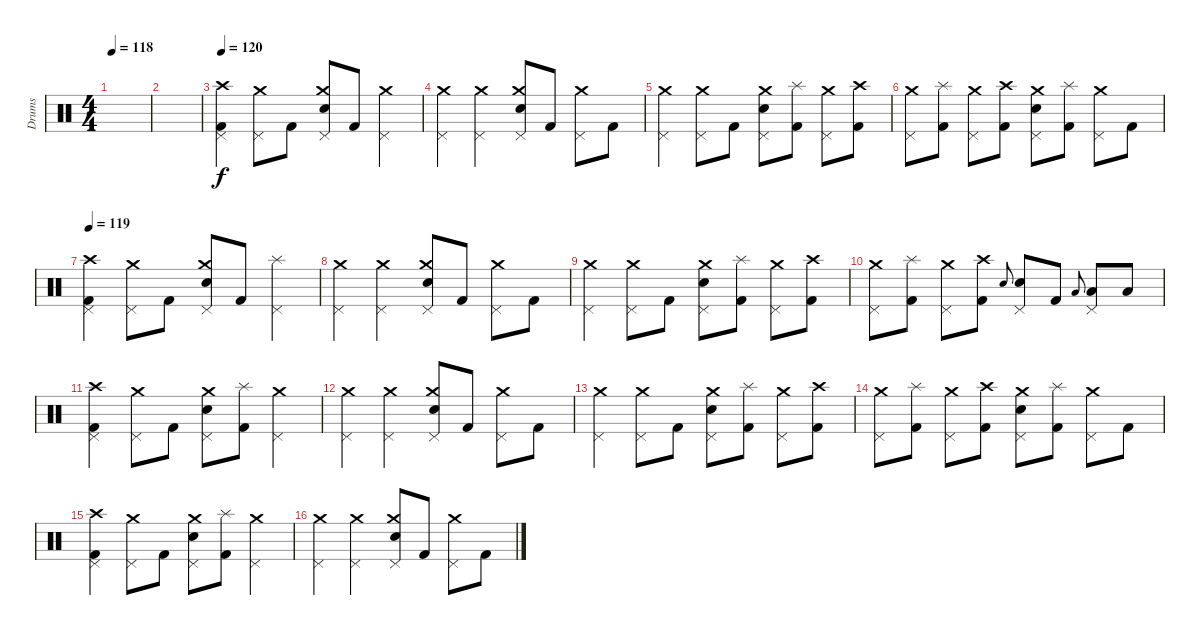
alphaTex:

\track ("Drums" "Drums") {instrument percussion}
\staff {score}
\articulation defaults
\ts (4 4)
\tempo 118
\clef neutral
\ks c
|
|
\section ("" "")
\tempo 120
("Crash high (hit)" "Pedal Hi-Hat (hit)" "Kick (hit) 2").4 ("Crash medium (hit)" "Pedal Hi-Hat (hit)").8 "Kick (hit) 2".8 ("Crash medium (hit)" "Pedal Hi-Hat (hit)" "Electric Snare (hit)").8 "Kick (hit) 2".8 ("Crash medium (hit)" "Pedal Hi-Hat (hit)").4 |
("Crash medium (hit)" "Pedal Hi-Hat (hit)").4 ("Crash medium (hit)" "Pedal Hi-Hat (hit)").4 ("Crash medium (hit)" "Pedal Hi-Hat (hit)" "Electric Snare (hit)").8 "Kick (hit) 2".8 ("Crash medium (hit)" "Pedal Hi-Hat (hit)").8 "Kick (hit) 2".8 |
("Crash medium (hit)" "Pedal Hi-Hat (hit)").4 ("Crash medium (hit)" "Pedal Hi-Hat (hit)").8 "Kick (hit) 2".8 ("Crash medium (hit)" "Pedal Hi-Hat (hit)" "Electric Snare (hit)").8 ("Splash (hit)" "Kick (hit) 2").8 ("Crash medium (hit)" "Pedal Hi-Hat (hit)").8 ("Crash high (hit)" "Kick (hit) 2").8 |
("Crash medium (hit)" "Pedal Hi-Hat (hit)").8 ("Splash (hit)" "Kick (hit) 2").8 ("Crash medium (hit)" "Pedal Hi-Hat (hit)").8 ("Crash high (hit)" "Kick (hit) 2").8 ("Crash medium (hit)" "Pedal Hi-Hat (hit)" "Electric Snare (hit)").8 ("Splash (hit)" "Kick (hit) 2").8 ("Crash medium (hit)" "Pedal Hi-Hat (hit)").8 "Kick (hit) 2".8 |
\tempo 119
("Crash high (hit)" "Pedal Hi-Hat (hit)" "Kick (hit) 2").4 ("Crash medium (hit)" "Pedal Hi-Hat (hit)").8 "Kick (hit) 2".8 ("Crash medium (hit)" "Pedal Hi-Hat (hit)" "Electric Snare (hit)").8 "Kick (hit) 2".8 ("Splash (hit)" "Pedal Hi-Hat (hit)").4 |
("Crash medium (hit)" "Pedal Hi-Hat (hit)").4 ("Crash medium (hit)" "Pedal Hi-Hat (hit)").4 ("Crash medium (hit)" "Pedal Hi-Hat (hit)" "Electric Snare (hit)").8 "Kick (hit) 2".8 ("Crash medium (hit)" "Pedal Hi-Hat (hit)").8 "Kick (hit) 2".8 |
("Crash medium (hit)" "Pedal Hi-Hat (hit)").4 ("Crash medium (hit)" "Pedal Hi-Hat (hit)").8 "Kick (hit) 2".8 ("Crash medium (hit)" "Pedal Hi-Hat (hit)" "Electric Snare (hit)").8 ("Splash (hit)" "Kick (hit) 2").8 ("Crash medium (hit)" "Pedal Hi-Hat (hit)").8 ("Crash high (hit)" "Kick (hit) 2").8 |
("Crash medium (hit)" "Pedal Hi-Hat (hit)").8 ("Splash (hit)" "Kick (hit) 2").8 ("Crash medium (hit)" "Pedal Hi-Hat (hit)").8 ("Crash high (hit)" "Kick (hit) 2").8 "Electric Snare (hit)".8{gr onbeat} ("Pedal Hi-Hat (hit)" "Electric Snare (hit)").8 "Kick (hit) 2".8 "Low Tom (hit)".8{gr onbeat} ("Pedal Hi-Hat (hit)" "Low Tom (hit)").8 "Low Floor Tom (hit)".8 |
("Crash high (hit)" "Pedal Hi-Hat (hit)" "Kick (hit) 2").4 ("Crash medium (hit)" "Pedal Hi-Hat (hit)").8 "Kick (hit) 2".8 ("Crash medium (hit)" "Pedal Hi-Hat (hit)" "Electric Snare (hit)").8 ("Splash (hit)" "Kick (hit) 2").8 ("Crash medium (hit)" "Pedal Hi-Hat (hit)").4 |
("Crash medium (hit)" "Pedal Hi-Hat (hit)").4 ("Crash medium (hit)" "Pedal Hi-Hat (hit)").4 ("Crash medium (hit)" "Pedal Hi-Hat (hit)" "Electric Snare (hit)").8 "Kick (hit) 2".8 ("Crash medium (hit)" "Pedal Hi-Hat (hit)").8 "Kick (hit) 2".8 |
("Crash medium (hit)" "Pedal Hi-Hat (hit)").4 ("Crash medium (hit)" "Pedal Hi-Hat (hit)").8 "Kick (hit) 2".8 ("Crash medium (hit)" "Pedal Hi-Hat (hit)" "Electric Snare (hit)").8 ("Splash (hit)" "Kick (hit) 2").8 ("Crash medium (hit)" "Pedal Hi-Hat (hit)").8 ("Crash high (hit)" "Kick (hit) 2").8 |
("Crash medium (hit)" "Pedal Hi-Hat (hit)").8 ("Splash (hit)" "Kick (hit) 2").8 ("Crash medium (hit)" "Pedal Hi-Hat (hit)").8 ("Crash high (hit)" "Kick (hit) 2").8 ("Crash medium (hit)" "Pedal Hi-Hat (hit)" "Electric Snare (hit)").8 ("Splash (hit)" "Kick (hit) 2").8 ("Crash medium (hit)" "Pedal Hi-Hat (hit)").8 "Kick (hit) 2".8 |
("Crash high (hit)" "Pedal Hi-Hat (hit)" "Kick (hit) 2").4 ("Crash medium (hit)" "Pedal Hi-Hat (hit)").8 "Kick (hit) 2".8 ("Crash medium (hit)" "Pedal Hi-Hat (hit)" "Electric Snare (hit)").8 ("Splash (hit)" "Kick (hit) 2").8 ("Crash medium (hit)" "Pedal Hi-Hat (hit)").4 |
("Crash medium (hit)" "Pedal Hi-Hat (hit)").4 ("Crash medium (hit)" "Pedal Hi-Hat (hit)").4 ("Crash medium (hit)" "Pedal Hi-Hat (hit)" "Electric Snare (hit)").8 "Kick (hit) 2".8 ("Crash medium (hit)" "Pedal Hi-Hat (hit)").8 "Kick (hit) 2".8
